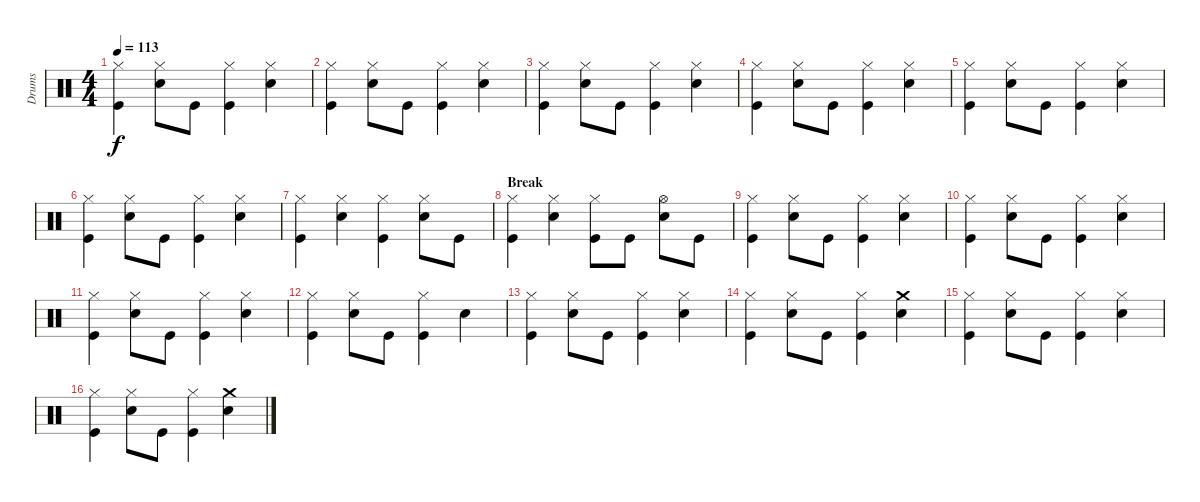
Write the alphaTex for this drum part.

\track ("Drums" "Drums") {instrument percussion}
\staff {score}
\articulation defaults
\ts (4 4)
\tempo 113
\clef neutral
\ks c
("Hi-Hat (closed)" "Kick (hit)").4{dy f} ("Hi-Hat (closed)" "Snare (hit) 2").8 "Kick (hit)".8 ("Hi-Hat (closed)" "Kick (hit)").4 ("Hi-Hat (closed)" "Snare (hit) 2").4 |
("Hi-Hat (closed)" "Kick (hit)").4 ("Hi-Hat (closed)" "Snare (hit) 2").8 "Kick (hit)".8 ("Hi-Hat (closed)" "Kick (hit)").4 ("Hi-Hat (closed)" "Snare (hit) 2").4 |
("Hi-Hat (closed)" "Kick (hit)").4 ("Hi-Hat (closed)" "Snare (hit) 2").8 "Kick (hit)".8 ("Hi-Hat (closed)" "Kick (hit)").4 ("Hi-Hat (closed)" "Snare (hit) 2").4 |
("Hi-Hat (closed)" "Kick (hit)").4 ("Hi-Hat (closed)" "Snare (hit) 2").8 "Kick (hit)".8 ("Hi-Hat (closed)" "Kick (hit)").4 ("Hi-Hat (closed)" "Snare (hit) 2").4 |
("Hi-Hat (closed)" "Kick (hit)").4 ("Hi-Hat (closed)" "Snare (hit) 2").8 "Kick (hit)".8 ("Hi-Hat (closed)" "Kick (hit)").4 ("Hi-Hat (closed)" "Snare (hit) 2").4 |
("Hi-Hat (closed)" "Kick (hit)").4 ("Hi-Hat (closed)" "Snare (hit) 2").8 "Kick (hit)".8 ("Hi-Hat (closed)" "Kick (hit)").4 ("Hi-Hat (closed)" "Snare (hit) 2").4 |
("Hi-Hat (closed)" "Kick (hit)").4 ("Hi-Hat (closed)" "Snare (hit) 2").4 ("Hi-Hat (closed)" "Kick (hit)").4 ("Hi-Hat (closed)" "Snare (hit) 2").8 "Kick (hit)".8 |
\section ("" "Break")
("Hi-Hat (closed)" "Kick (hit)").4 ("Hi-Hat (closed)" "Snare (hit) 2").4 ("Hi-Hat (closed)" "Kick (hit)").8 "Kick (hit)".8 ("Hi-Hat (open)" "Snare (hit) 2").8 "Kick (hit)".8 |
("Hi-Hat (closed)" "Kick (hit)").4 ("Hi-Hat (closed)" "Snare (hit) 2").8 "Kick (hit)".8 ("Hi-Hat (closed)" "Kick (hit)").4 ("Hi-Hat (closed)" "Snare (hit) 2").4 |
("Hi-Hat (closed)" "Kick (hit)").4 ("Hi-Hat (closed)" "Snare (hit) 2").8 "Kick (hit)".8 ("Hi-Hat (closed)" "Kick (hit)").4 ("Hi-Hat (closed)" "Snare (hit) 2").4 |
("Hi-Hat (closed)" "Kick (hit)").4 ("Hi-Hat (closed)" "Snare (hit) 2").8 "Kick (hit)".8 ("Hi-Hat (closed)" "Kick (hit)").4 ("Hi-Hat (closed)" "Snare (hit) 2").4 |
("Hi-Hat (closed)" "Kick (hit)").4 ("Hi-Hat (closed)" "Snare (hit) 2").8 "Kick (hit)".8 ("Hi-Hat (closed)" "Kick (hit)").4 "Snare (hit) 2".4 |
("Hi-Hat (closed)" "Kick (hit)").4 ("Hi-Hat (closed)" "Snare (hit) 2").8 "Kick (hit)".8 ("Hi-Hat (closed)" "Kick (hit)").4 ("Hi-Hat (closed)" "Snare (hit) 2").4 |
("Hi-Hat (closed)" "Kick (hit)").4 ("Hi-Hat (closed)" "Snare (hit) 2").8 "Kick (hit)".8 ("Hi-Hat (closed)" "Kick (hit)").4 ("Crash medium (hit)" "Snare (hit) 2").4 |
("Hi-Hat (closed)" "Kick (hit)").4 ("Hi-Hat (closed)" "Snare (hit) 2").8 "Kick (hit)".8 ("Hi-Hat (closed)" "Kick (hit)").4 ("Hi-Hat (closed)" "Snare (hit) 2").4 |
("Hi-Hat (closed)" "Kick (hit)").4 ("Hi-Hat (closed)" "Snare (hit) 2").8 "Kick (hit)".8 ("Hi-Hat (closed)" "Kick (hit)").4 ("Crash medium (hit)" "Snare (hit) 2").4
